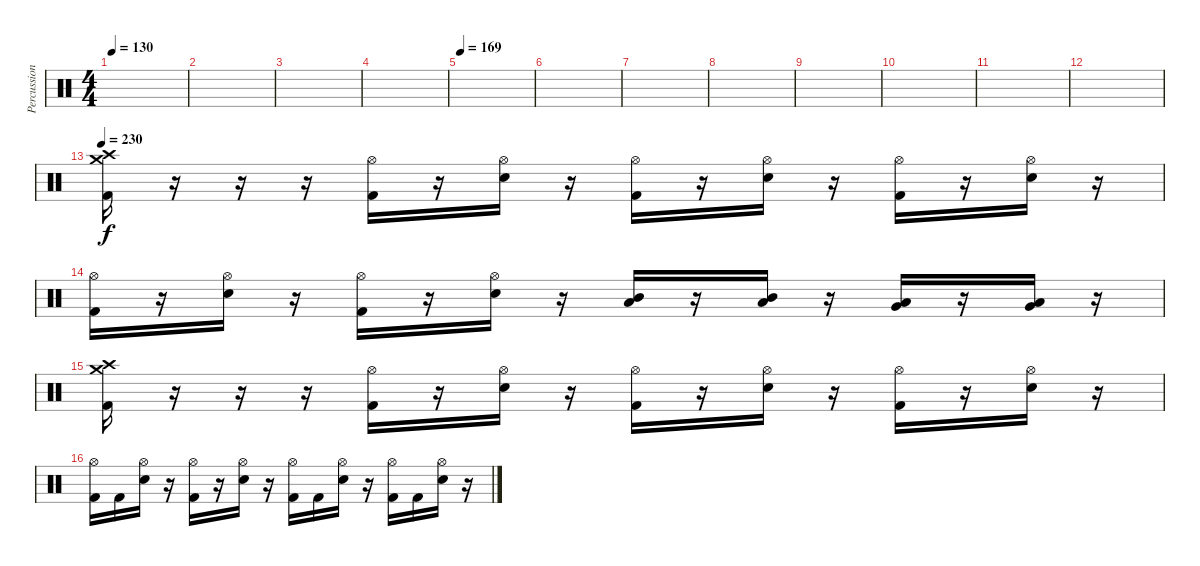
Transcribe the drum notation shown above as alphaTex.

\track ("Percussion" "Percussion") {instrument percussion}
\staff {score}
\articulation defaults
\ts (4 4)
\tempo 130
\clef neutral
\ks c
|
|
|
|
\tempo 169
|
|
|
|
|
|
|
|
\tempo 230
("Crash medium (hit)" "Crash high (hit)" "Kick (hit) 2").16 r.16 r.16 r.16 ("Hi-Hat (open)" "Kick (hit) 2").16 r.16 ("Hi-Hat (open)" "Electric Snare (hit)").16 r.16 ("Hi-Hat (open)" "Kick (hit) 2").16 r.16 ("Hi-Hat (open)" "Electric Snare (hit)").16 r.16 ("Hi-Hat (open)" "Kick (hit) 2").16 r.16 ("Hi-Hat (open)" "Electric Snare (hit)").16 r.16 |
("Hi-Hat (open)" "Kick (hit) 2").16 r.16 ("Hi-Hat (open)" "Electric Snare (hit)").16 r.16 ("Hi-Hat (open)" "Kick (hit) 2").16 r.16 ("Hi-Hat (open)" "Electric Snare (hit)").16 r.16 ("Mid Tom (hit)" "Low Tom (hit)").16 r.16 ("Mid Tom (hit)" "Low Tom (hit)").16 r.16 ("Low Tom (hit)" "Very Low Tom (hit)").16 r.16 ("Low Tom (hit)" "Very Low Tom (hit)").16 r.16 |
("Crash medium (hit)" "Crash high (hit)" "Kick (hit) 2").16 r.16 r.16 r.16 ("Hi-Hat (open)" "Kick (hit) 2").16 r.16 ("Hi-Hat (open)" "Electric Snare (hit)").16 r.16 ("Hi-Hat (open)" "Kick (hit) 2").16 r.16 ("Hi-Hat (open)" "Electric Snare (hit)").16 r.16 ("Hi-Hat (open)" "Kick (hit) 2").16 r.16 ("Hi-Hat (open)" "Electric Snare (hit)").16 r.16 |
("Hi-Hat (open)" "Kick (hit) 2").16 "Kick (hit) 2".16 ("Hi-Hat (open)" "Electric Snare (hit)").16 r.16 ("Hi-Hat (open)" "Kick (hit) 2").16 r.16 ("Hi-Hat (open)" "Electric Snare (hit)").16 r.16 ("Hi-Hat (open)" "Kick (hit) 2").16 "Kick (hit) 2".16 ("Hi-Hat (open)" "Electric Snare (hit)").16 r.16 ("Hi-Hat (open)" "Kick (hit) 2").16 "Kick (hit) 2".16 ("Hi-Hat (open)" "Electric Snare (hit)").16 r.16
